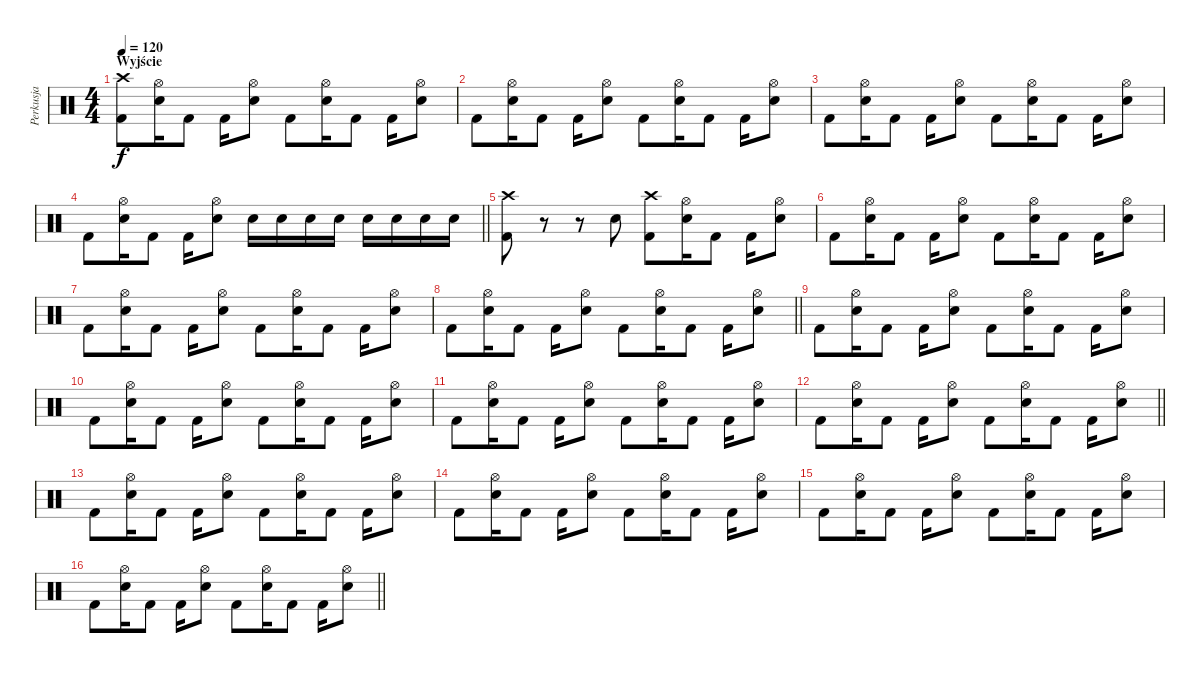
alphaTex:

\track ("Perkusja" "Perkusja") {instrument percussion}
\staff {score}
\articulation defaults
\ts (4 4)
\section ("" "Wyjście")
\tempo 120
\clef neutral
\ks c
("Crash high (hit)" "Kick (hit) 2").8{dy f} ("Hi-Hat (open)" "Electric Snare (hit)").16 "Kick (hit) 2".8 "Kick (hit) 2".16 ("Hi-Hat (open)" "Electric Snare (hit)").8 "Kick (hit) 2".8 ("Hi-Hat (open)" "Electric Snare (hit)").16 "Kick (hit) 2".8 "Kick (hit) 2".16 ("Hi-Hat (open)" "Electric Snare (hit)").8 |
"Kick (hit) 2".8 ("Hi-Hat (open)" "Electric Snare (hit)").16 "Kick (hit) 2".8 "Kick (hit) 2".16 ("Hi-Hat (open)" "Electric Snare (hit)").8 "Kick (hit) 2".8 ("Hi-Hat (open)" "Electric Snare (hit)").16 "Kick (hit) 2".8 "Kick (hit) 2".16 ("Hi-Hat (open)" "Electric Snare (hit)").8 |
"Kick (hit) 2".8 ("Hi-Hat (open)" "Electric Snare (hit)").16 "Kick (hit) 2".8 "Kick (hit) 2".16 ("Hi-Hat (open)" "Electric Snare (hit)").8 "Kick (hit) 2".8 ("Hi-Hat (open)" "Electric Snare (hit)").16 "Kick (hit) 2".8 "Kick (hit) 2".16 ("Hi-Hat (open)" "Electric Snare (hit)").8 |
\barLineRight lightlight "Kick (hit) 2".8
("Hi-Hat (open)" "Electric Snare (hit)").16 "Kick (hit) 2".8 "Kick (hit) 2".16 ("Hi-Hat (open)" "Electric Snare (hit)").8 "Electric Snare (hit)".16 "Electric Snare (hit)".16 "Electric Snare (hit)".16 "Electric Snare (hit)".16 "Electric Snare (hit)".16 "Electric Snare (hit)".16 "Electric Snare (hit)".16 "Electric Snare (hit)".16 |
("Crash high (hit)" "Kick (hit) 2").8 r.8 r.8 "Electric Snare (hit)".8 ("Crash high (hit)" "Kick (hit) 2").8 ("Hi-Hat (open)" "Electric Snare (hit)").16 "Kick (hit) 2".8 "Kick (hit) 2".16 ("Hi-Hat (open)" "Electric Snare (hit)").8 |
"Kick (hit) 2".8 ("Hi-Hat (open)" "Electric Snare (hit)").16 "Kick (hit) 2".8 "Kick (hit) 2".16 ("Hi-Hat (open)" "Electric Snare (hit)").8 "Kick (hit) 2".8 ("Hi-Hat (open)" "Electric Snare (hit)").16 "Kick (hit) 2".8 "Kick (hit) 2".16 ("Hi-Hat (open)" "Electric Snare (hit)").8 |
"Kick (hit) 2".8 ("Hi-Hat (open)" "Electric Snare (hit)").16 "Kick (hit) 2".8 "Kick (hit) 2".16 ("Hi-Hat (open)" "Electric Snare (hit)").8 "Kick (hit) 2".8 ("Hi-Hat (open)" "Electric Snare (hit)").16 "Kick (hit) 2".8 "Kick (hit) 2".16 ("Hi-Hat (open)" "Electric Snare (hit)").8 |
\barLineRight lightlight "Kick (hit) 2".8
("Hi-Hat (open)" "Electric Snare (hit)").16 "Kick (hit) 2".8 "Kick (hit) 2".16 ("Hi-Hat (open)" "Electric Snare (hit)").8 "Kick (hit) 2".8 ("Hi-Hat (open)" "Electric Snare (hit)").16 "Kick (hit) 2".8 "Kick (hit) 2".16 ("Hi-Hat (open)" "Electric Snare (hit)").8 |
"Kick (hit) 2".8 ("Hi-Hat (open)" "Electric Snare (hit)").16 "Kick (hit) 2".8 "Kick (hit) 2".16 ("Hi-Hat (open)" "Electric Snare (hit)").8 "Kick (hit) 2".8 ("Hi-Hat (open)" "Electric Snare (hit)").16 "Kick (hit) 2".8 "Kick (hit) 2".16 ("Hi-Hat (open)" "Electric Snare (hit)").8 |
"Kick (hit) 2".8 ("Hi-Hat (open)" "Electric Snare (hit)").16 "Kick (hit) 2".8 "Kick (hit) 2".16 ("Hi-Hat (open)" "Electric Snare (hit)").8 "Kick (hit) 2".8 ("Hi-Hat (open)" "Electric Snare (hit)").16 "Kick (hit) 2".8 "Kick (hit) 2".16 ("Hi-Hat (open)" "Electric Snare (hit)").8 |
"Kick (hit) 2".8 ("Hi-Hat (open)" "Electric Snare (hit)").16 "Kick (hit) 2".8 "Kick (hit) 2".16 ("Hi-Hat (open)" "Electric Snare (hit)").8 "Kick (hit) 2".8 ("Hi-Hat (open)" "Electric Snare (hit)").16 "Kick (hit) 2".8 "Kick (hit) 2".16 ("Hi-Hat (open)" "Electric Snare (hit)").8 |
\barLineRight lightlight "Kick (hit) 2".8
("Hi-Hat (open)" "Electric Snare (hit)").16 "Kick (hit) 2".8 "Kick (hit) 2".16 ("Hi-Hat (open)" "Electric Snare (hit)").8 "Kick (hit) 2".8 ("Hi-Hat (open)" "Electric Snare (hit)").16 "Kick (hit) 2".8 "Kick (hit) 2".16 ("Hi-Hat (open)" "Electric Snare (hit)").8 |
"Kick (hit) 2".8 ("Hi-Hat (open)" "Electric Snare (hit)").16 "Kick (hit) 2".8 "Kick (hit) 2".16 ("Hi-Hat (open)" "Electric Snare (hit)").8 "Kick (hit) 2".8 ("Hi-Hat (open)" "Electric Snare (hit)").16 "Kick (hit) 2".8 "Kick (hit) 2".16 ("Hi-Hat (open)" "Electric Snare (hit)").8 |
"Kick (hit) 2".8 ("Hi-Hat (open)" "Electric Snare (hit)").16 "Kick (hit) 2".8 "Kick (hit) 2".16 ("Hi-Hat (open)" "Electric Snare (hit)").8 "Kick (hit) 2".8 ("Hi-Hat (open)" "Electric Snare (hit)").16 "Kick (hit) 2".8 "Kick (hit) 2".16 ("Hi-Hat (open)" "Electric Snare (hit)").8 |
"Kick (hit) 2".8 ("Hi-Hat (open)" "Electric Snare (hit)").16 "Kick (hit) 2".8 "Kick (hit) 2".16 ("Hi-Hat (open)" "Electric Snare (hit)").8 "Kick (hit) 2".8 ("Hi-Hat (open)" "Electric Snare (hit)").16 "Kick (hit) 2".8 "Kick (hit) 2".16 ("Hi-Hat (open)" "Electric Snare (hit)").8 |
\barLineRight lightlight "Kick (hit) 2".8
("Hi-Hat (open)" "Electric Snare (hit)").16 "Kick (hit) 2".8 "Kick (hit) 2".16 ("Hi-Hat (open)" "Electric Snare (hit)").8 "Kick (hit) 2".8 ("Hi-Hat (open)" "Electric Snare (hit)").16 "Kick (hit) 2".8 "Kick (hit) 2".16 ("Hi-Hat (open)" "Electric Snare (hit)").8
